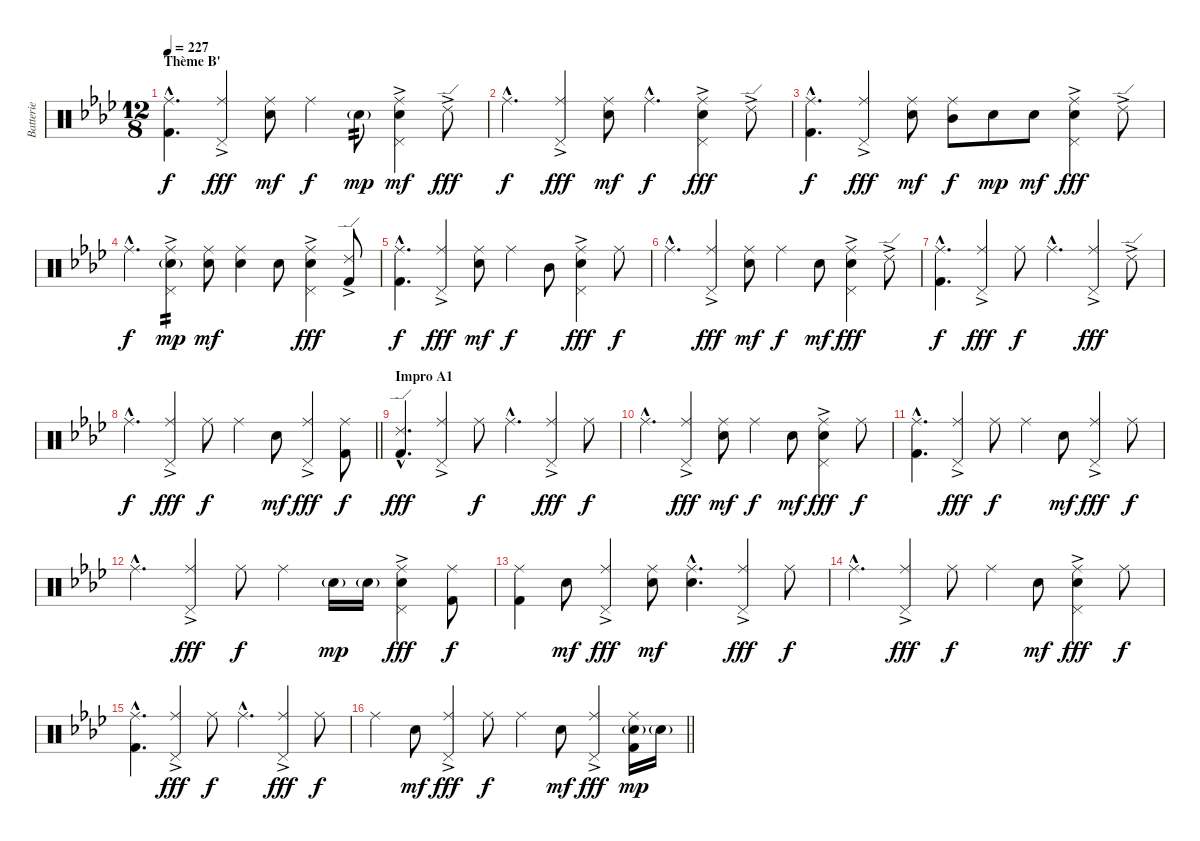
\track ("Batterie" "Batterie") {instrument percussion}
\staff {score}
\articulation defaults
\ts (12 8)
\section ("" "Thème B'")
\tempo 227
\clef neutral
\ks fminor
("Ride (middle)"{hac} "Kick (hit) 2"{hac}).4{d dy f volume 12 balance 8} ("Ride (middle)" "Pedal Hi-Hat (hit)"{ac}).4{dy fff} ("Ride (middle)" "Snare (hit) 2").8{dy mf} "Ride (middle)".4{dy f} "Snare (hit) 2"{g}.8{tp 2 dy mp} ("Ride (middle)" "Pedal Hi-Hat (hit)"{ac} "Snare (hit) 2").4{dy mf} "Ride (edge) 2"{ac}.8{dy fff} |
"Ride (middle)"{hac}.4{d dy f} ("Ride (middle)" "Pedal Hi-Hat (hit)"{ac}).4{dy fff} ("Ride (middle)" "Snare (hit) 2").8{dy mf} "Ride (middle)"{hac}.4{d dy f} ("Ride (middle)" "Pedal Hi-Hat (hit)"{ac} "Snare (hit) 2").4{dy fff} "Ride (edge) 2"{ac}.8 |
("Ride (middle)"{hac} "Kick (hit) 2"{hac}).4{d dy f} ("Ride (middle)" "Pedal Hi-Hat (hit)"{ac}).4{dy fff} ("Ride (middle)" "Snare (hit) 2").8{dy mf} ("Ride (middle)" "Mid Tom (hit)").8{dy f} "Snare (hit) 2".8{dy mp} "Snare (hit) 2".8{dy mf} ("Ride (middle)" "Pedal Hi-Hat (hit)"{ac} "Snare (hit) 2").4{dy fff} "Ride (edge) 2"{ac}.8 |
"Ride (middle)"{hac}.4{d dy f} ("Ride (middle)" "Pedal Hi-Hat (hit)"{ac} "Snare (hit) 2"{g}).4{tp 2 dy mp} ("Ride (middle)" "Snare (hit) 2").8{dy mf} ("Ride (middle)" "Snare (hit) 2").4 "Snare (hit) 2".8 ("Ride (middle)" "Pedal Hi-Hat (hit)"{ac} "Snare (hit) 2").4{dy fff} ("Ride (edge) 2"{ac} "Kick (hit) 2").8 |
("Ride (middle)"{hac} "Kick (hit) 2"{hac}).4{d dy f} ("Ride (middle)" "Pedal Hi-Hat (hit)"{ac}).4{dy fff} ("Ride (middle)" "Snare (hit) 2").8{dy mf} "Ride (middle)".4{dy f} "Mid Tom (hit)".8 ("Ride (middle)" "Pedal Hi-Hat (hit)"{ac} "Snare (hit) 2").4{dy fff} "Ride (middle)".8{dy f} |
"Ride (middle)"{hac}.4{d} ("Ride (middle)" "Pedal Hi-Hat (hit)"{ac}).4{dy fff} ("Ride (middle)" "Snare (hit) 2").8{dy mf} "Ride (middle)".4{dy f} "Snare (hit) 2".8{dy mf} ("Ride (middle)" "Pedal Hi-Hat (hit)"{ac} "Snare (hit) 2").4{dy fff} "Ride (edge) 2"{ac}.8 |
("Ride (middle)"{hac} "Kick (hit) 2"{hac}).4{d dy f} ("Ride (middle)" "Pedal Hi-Hat (hit)"{ac}).4{dy fff} "Ride (middle)".8{dy f} "Ride (middle)"{hac}.4{d} ("Ride (middle)" "Pedal Hi-Hat (hit)"{ac}).4{dy fff} "Ride (edge) 2"{ac}.8 |
\barLineRight lightlight "Ride (middle)"{hac}.4{d dy f}
("Ride (middle)" "Pedal Hi-Hat (hit)"{ac}).4{dy fff} "Ride (middle)".8{dy f} "Ride (middle)".4 "Snare (hit) 2".8{dy mf} ("Ride (middle)" "Pedal Hi-Hat (hit)"{ac}).4{dy fff} ("Ride (middle)" "Kick (hit) 2").8{dy f} |
\section ("" "Impro A1")
("Ride (edge) 2"{hac} "Kick (hit) 2"{hac}).4{d dy fff volume 11 balance 8} ("Ride (middle)" "Pedal Hi-Hat (hit)"{ac}).4 "Ride (middle)".8{dy f} "Ride (middle)"{hac}.4{d} ("Ride (middle)" "Pedal Hi-Hat (hit)"{ac}).4{dy fff} "Ride (middle)".8{dy f} |
"Ride (middle)"{hac}.4{d} ("Ride (middle)" "Pedal Hi-Hat (hit)"{ac}).4{dy fff} ("Ride (middle)" "Snare (hit) 2").8{dy mf} "Ride (middle)".4{dy f} "Snare (hit) 2".8{dy mf} ("Ride (middle)" "Pedal Hi-Hat (hit)"{ac} "Snare (hit) 2").4{dy fff} "Ride (middle)".8{dy f} |
("Ride (middle)"{hac} "Kick (hit) 2"{hac}).4{d} ("Ride (middle)" "Pedal Hi-Hat (hit)"{ac}).4{dy fff} "Ride (middle)".8{dy f} "Ride (middle)".4 "Snare (hit) 2".8{dy mf} ("Ride (middle)" "Pedal Hi-Hat (hit)"{ac}).4{dy fff} "Ride (middle)".8{dy f} |
"Ride (middle)"{hac}.4{d} ("Ride (middle)" "Pedal Hi-Hat (hit)"{ac}).4{dy fff} "Ride (middle)".8{dy f} "Ride (middle)".4 "Snare (hit) 2"{g}.16{dy mp} "Snare (hit) 2"{g}.16 ("Ride (middle)" "Pedal Hi-Hat (hit)"{ac} "Snare (hit) 2"{ac}).4{dy fff} ("Ride (middle)" "Kick (hit) 2").8{dy f} |
("Ride (middle)" "Kick (hit) 2").4 "Snare (hit) 2".8{dy mf} ("Ride (middle)" "Pedal Hi-Hat (hit)"{ac}).4{dy fff} ("Ride (middle)" "Snare (hit) 2").8{dy mf} ("Ride (middle)"{hac} "Snare (hit) 2"{hac}).4{d} ("Ride (middle)" "Pedal Hi-Hat (hit)"{ac}).4{dy fff} "Ride (middle)".8{dy f} |
"Ride (middle)"{hac}.4{d} ("Ride (middle)" "Pedal Hi-Hat (hit)"{ac}).4{dy fff} "Ride (middle)".8{dy f} "Ride (middle)".4 "Snare (hit) 2".8{dy mf} ("Ride (middle)" "Pedal Hi-Hat (hit)"{ac} "Snare (hit) 2").4{dy fff} "Ride (middle)".8{dy f} |
("Ride (middle)"{hac} "Kick (hit) 2"{hac}).4{d} ("Ride (middle)" "Pedal Hi-Hat (hit)"{ac}).4{dy fff} "Ride (middle)".8{dy f} "Ride (middle)"{hac}.4{d} ("Ride (middle)" "Pedal Hi-Hat (hit)"{ac}).4{dy fff} "Ride (middle)".8{dy f} |
\barLineRight lightlight "Ride (middle)".4 "Snare (hit) 2".8{dy mf}
("Ride (middle)" "Pedal Hi-Hat (hit)"{ac}).4{dy fff} "Ride (middle)".8{dy f} "Ride (middle)".4 "Snare (hit) 2".8{dy mf} ("Ride (middle)" "Pedal Hi-Hat (hit)"{ac}).4{dy fff} ("Ride (middle)" "Snare (hit) 2"{g} "Kick (hit) 2").16{dy mp} "Snare (hit) 2"{g}.16
